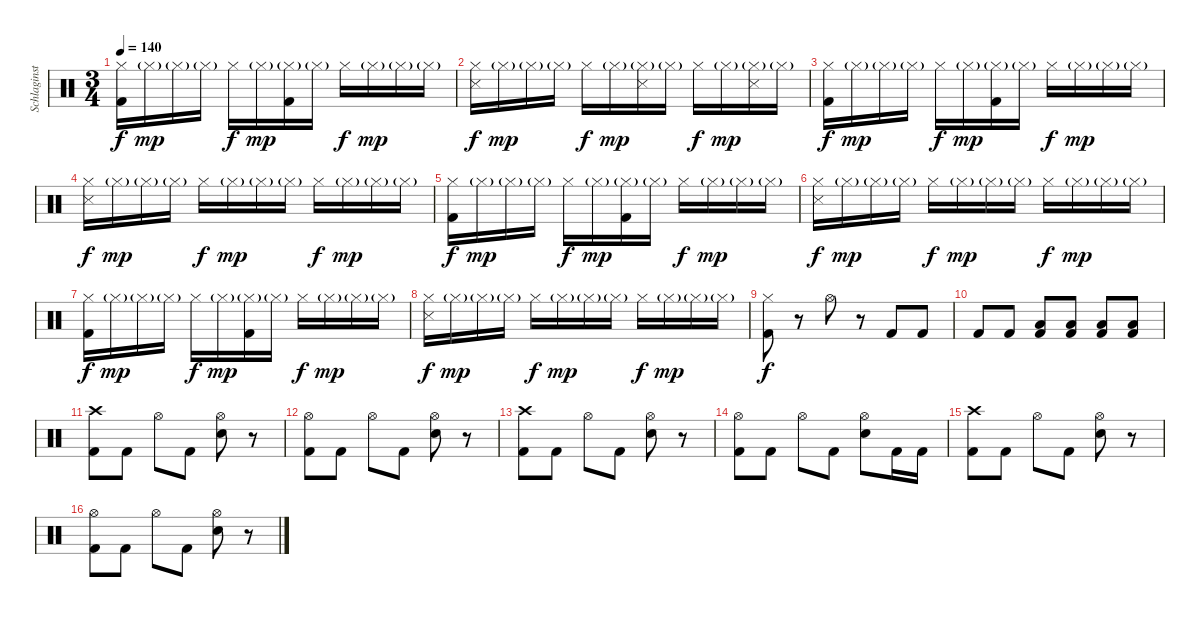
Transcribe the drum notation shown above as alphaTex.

\track ("Schlaginstrumente - Auswahl" "Schlaginst") {instrument percussion}
\staff {score}
\articulation defaults
\ts (3 4)
\tempo 140
\clef neutral
\ks c
("Hi-Hat (closed)" "Kick (hit) 2").16{dy f} "Hi-Hat (closed)"{g}.16{dy mp} "Hi-Hat (closed)"{g}.16 "Hi-Hat (closed)"{g}.16 "Hi-Hat (closed)".16{dy f} "Hi-Hat (closed)"{g}.16{dy mp} ("Hi-Hat (closed)"{g} "Kick (hit) 2").16 "Hi-Hat (closed)"{g}.16 "Hi-Hat (closed)".16{dy f} "Hi-Hat (closed)"{g}.16{dy mp} "Hi-Hat (closed)"{g}.16 "Hi-Hat (closed)"{g}.16 |
("Hi-Hat (closed)" "Snare (side stick) 3").16{dy f} "Hi-Hat (closed)"{g}.16{dy mp} "Hi-Hat (closed)"{g}.16 "Hi-Hat (closed)"{g}.16 "Hi-Hat (closed)".16{dy f} "Hi-Hat (closed)"{g}.16{dy mp} ("Hi-Hat (closed)"{g} "Snare (side stick) 3").16 "Hi-Hat (closed)"{g}.16 "Hi-Hat (closed)".16{dy f} "Hi-Hat (closed)"{g}.16{dy mp} ("Hi-Hat (closed)"{g} "Snare (side stick) 3").16 "Hi-Hat (closed)"{g}.16 |
("Hi-Hat (closed)" "Kick (hit) 2").16{dy f} "Hi-Hat (closed)"{g}.16{dy mp} "Hi-Hat (closed)"{g}.16 "Hi-Hat (closed)"{g}.16 "Hi-Hat (closed)".16{dy f} "Hi-Hat (closed)"{g}.16{dy mp} ("Hi-Hat (closed)"{g} "Kick (hit) 2").16 "Hi-Hat (closed)"{g}.16 "Hi-Hat (closed)".16{dy f} "Hi-Hat (closed)"{g}.16{dy mp} "Hi-Hat (closed)"{g}.16 "Hi-Hat (closed)"{g}.16 |
("Hi-Hat (closed)" "Snare (side stick) 3").16{dy f} "Hi-Hat (closed)"{g}.16{dy mp} "Hi-Hat (closed)"{g}.16 "Hi-Hat (closed)"{g}.16 "Hi-Hat (closed)".16{dy f} "Hi-Hat (closed)"{g}.16{dy mp} "Hi-Hat (closed)"{g}.16 "Hi-Hat (closed)"{g}.16 "Hi-Hat (closed)".16{dy f} "Hi-Hat (closed)"{g}.16{dy mp} "Hi-Hat (closed)"{g}.16 "Hi-Hat (closed)"{g}.16 |
("Hi-Hat (closed)" "Kick (hit) 2").16{dy f} "Hi-Hat (closed)"{g}.16{dy mp} "Hi-Hat (closed)"{g}.16 "Hi-Hat (closed)"{g}.16 "Hi-Hat (closed)".16{dy f} "Hi-Hat (closed)"{g}.16{dy mp} ("Hi-Hat (closed)"{g} "Kick (hit) 2").16 "Hi-Hat (closed)"{g}.16 "Hi-Hat (closed)".16{dy f} "Hi-Hat (closed)"{g}.16{dy mp} "Hi-Hat (closed)"{g}.16 "Hi-Hat (closed)"{g}.16 |
("Hi-Hat (closed)" "Snare (side stick) 3").16{dy f} "Hi-Hat (closed)"{g}.16{dy mp} "Hi-Hat (closed)"{g}.16 "Hi-Hat (closed)"{g}.16 "Hi-Hat (closed)".16{dy f} "Hi-Hat (closed)"{g}.16{dy mp} "Hi-Hat (closed)"{g}.16 "Hi-Hat (closed)"{g}.16 "Hi-Hat (closed)".16{dy f} "Hi-Hat (closed)"{g}.16{dy mp} "Hi-Hat (closed)"{g}.16 "Hi-Hat (closed)"{g}.16 |
("Hi-Hat (closed)" "Kick (hit) 2").16{dy f} "Hi-Hat (closed)"{g}.16{dy mp} "Hi-Hat (closed)"{g}.16 "Hi-Hat (closed)"{g}.16 "Hi-Hat (closed)".16{dy f} "Hi-Hat (closed)"{g}.16{dy mp} ("Hi-Hat (closed)"{g} "Kick (hit) 2").16 "Hi-Hat (closed)"{g}.16 "Hi-Hat (closed)".16{dy f} "Hi-Hat (closed)"{g}.16{dy mp} "Hi-Hat (closed)"{g}.16 "Hi-Hat (closed)"{g}.16 |
("Hi-Hat (closed)" "Snare (side stick) 3").16{dy f} "Hi-Hat (closed)"{g}.16{dy mp} "Hi-Hat (closed)"{g}.16 "Hi-Hat (closed)"{g}.16 "Hi-Hat (closed)".16{dy f} "Hi-Hat (closed)"{g}.16{dy mp} "Hi-Hat (closed)"{g}.16 "Hi-Hat (closed)"{g}.16 "Hi-Hat (closed)".16{dy f} "Hi-Hat (closed)"{g}.16{dy mp} "Hi-Hat (closed)"{g}.16 "Hi-Hat (closed)"{g}.16 |
("Hi-Hat (closed)" "Kick (hit) 2").8{dy f} r.8 "Hi-Hat (open)".8 r.8 "Kick (hit) 2".8 "Kick (hit) 2".8 |
"Kick (hit) 2".8 "Kick (hit) 2".8 ("Low Tom (hit)" "Kick (hit) 2").8 ("Low Tom (hit)" "Kick (hit) 2").8 ("Low Tom (hit)" "Kick (hit) 2").8 ("Low Tom (hit)" "Kick (hit) 2").8 |
("Crash high (hit)" "Kick (hit) 2").8 "Kick (hit) 2".8 "Hi-Hat (open)".8 "Kick (hit) 2".8 ("Hi-Hat (open)" "Electric Snare (hit)").8 r.8 |
("Hi-Hat (open)" "Kick (hit) 2").8 "Kick (hit) 2".8 "Hi-Hat (open)".8 "Kick (hit) 2".8 ("Hi-Hat (open)" "Electric Snare (hit)").8 r.8 |
("Crash high (hit)" "Kick (hit) 2").8 "Kick (hit) 2".8 "Hi-Hat (open)".8 "Kick (hit) 2".8 ("Hi-Hat (open)" "Electric Snare (hit)").8 r.8 |
("Hi-Hat (open)" "Kick (hit) 2").8 "Kick (hit) 2".8 "Hi-Hat (open)".8 "Kick (hit) 2".8 ("Hi-Hat (open)" "Electric Snare (hit)").8 "Kick (hit) 2".16 "Kick (hit) 2".16 |
("Crash high (hit)" "Kick (hit) 2").8 "Kick (hit) 2".8 "Hi-Hat (open)".8 "Kick (hit) 2".8 ("Hi-Hat (open)" "Electric Snare (hit)").8 r.8 |
("Hi-Hat (open)" "Kick (hit) 2").8 "Kick (hit) 2".8 "Hi-Hat (open)".8 "Kick (hit) 2".8 ("Hi-Hat (open)" "Electric Snare (hit)").8 r.8
